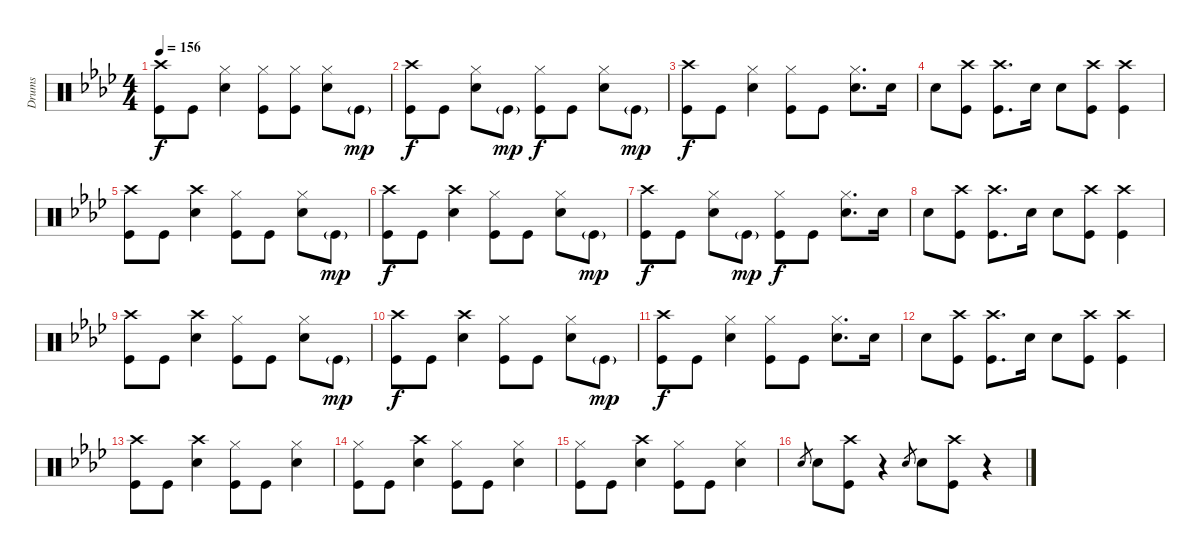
\track ("Drums" "Drums") {instrument percussion}
\staff {score}
\articulation defaults
\ts (4 4)
\tempo 156
\clef neutral
\ks ab
("Crash high (hit)" "Kick (hit)").8{dy f} "Kick (hit)".8 ("Hi-Hat (closed)" "Snare (hit) 2").4 ("Hi-Hat (closed)" "Kick (hit)").8 ("Hi-Hat (closed)" "Kick (hit)").8 ("Hi-Hat (closed)" "Snare (hit) 2").8 "Kick (hit)"{g}.8{dy mp} |
("Crash high (hit)" "Kick (hit)").8{dy f} "Kick (hit)".8 ("Hi-Hat (closed)" "Snare (hit) 2").8 "Kick (hit)"{g}.8{dy mp} ("Hi-Hat (closed)" "Kick (hit)").8{dy f} "Kick (hit)".8 ("Snare (hit) 2" "Hi-Hat (closed)").8 "Kick (hit)"{g}.8{dy mp} |
("Crash high (hit)" "Kick (hit)").8{dy f} "Kick (hit)".8 ("Hi-Hat (closed)" "Snare (hit) 2").4 ("Hi-Hat (closed)" "Kick (hit)").8 "Kick (hit)".8 ("Hi-Hat (closed)" "Snare (hit) 2").8{d} "Snare (hit) 2".16 |
"Snare (hit) 2".8 ("Crash high (hit)" "Kick (hit)").8 ("Crash high (hit)" "Kick (hit)").8{d} "Snare (hit) 2".16 "Snare (hit) 2".8 ("Crash high (hit)" "Kick (hit)").8 ("Crash high (hit)" "Kick (hit)").4 |
("Crash high (hit)" "Kick (hit)").8 "Kick (hit)".8 ("Crash high (hit)" "Snare (hit) 2").4 ("Kick (hit)" "Hi-Hat (closed)").8 "Kick (hit)".8 ("Hi-Hat (closed)" "Snare (hit) 2").8 "Kick (hit)"{g}.8{dy mp} |
("Crash high (hit)" "Kick (hit)").8{dy f} "Kick (hit)".8 ("Crash high (hit)" "Snare (hit) 2").4 ("Kick (hit)" "Hi-Hat (closed)").8 "Kick (hit)".8 ("Hi-Hat (closed)" "Snare (hit) 2").8 "Kick (hit)"{g}.8{dy mp} |
("Crash high (hit)" "Kick (hit)").8{dy f} "Kick (hit)".8 ("Snare (hit) 2" "Hi-Hat (closed)").8 "Kick (hit)"{g}.8{dy mp} ("Hi-Hat (closed)" "Kick (hit)").8{dy f} "Kick (hit)".8 ("Hi-Hat (closed)" "Snare (hit) 2").8{d} "Snare (hit) 2".16 |
"Snare (hit) 2".8 ("Kick (hit)" "Crash high (hit)").8 ("Crash high (hit)" "Kick (hit)").8{d} "Snare (hit) 2".16 "Snare (hit) 2".8 ("Crash high (hit)" "Kick (hit)").8 ("Kick (hit)" "Crash high (hit)").4 |
("Crash high (hit)" "Kick (hit)").8 "Kick (hit)".8 ("Crash high (hit)" "Snare (hit) 2").4 ("Kick (hit)" "Hi-Hat (closed)").8 "Kick (hit)".8 ("Hi-Hat (closed)" "Snare (hit) 2").8 "Kick (hit)"{g}.8{dy mp} |
("Crash high (hit)" "Kick (hit)").8{dy f} "Kick (hit)".8 ("Crash high (hit)" "Snare (hit) 2").4 ("Kick (hit)" "Hi-Hat (closed)").8 "Kick (hit)".8 ("Hi-Hat (closed)" "Snare (hit) 2").8 "Kick (hit)"{g}.8{dy mp} |
("Crash high (hit)" "Kick (hit)").8{dy f} "Kick (hit)".8 ("Hi-Hat (closed)" "Snare (hit) 2").4 ("Hi-Hat (closed)" "Kick (hit)").8 "Kick (hit)".8 ("Hi-Hat (closed)" "Snare (hit) 2").8{d} "Snare (hit) 2".16 |
"Snare (hit) 2".8 ("Kick (hit)" "Crash high (hit)").8 ("Crash high (hit)" "Kick (hit)").8{d} "Snare (hit) 2".16 "Snare (hit) 2".8 ("Crash high (hit)" "Kick (hit)").8 ("Kick (hit)" "Crash high (hit)").4 |
("Crash high (hit)" "Kick (hit)").8 "Kick (hit)".8 ("Crash high (hit)" "Snare (hit) 2").4 ("Kick (hit)" "Hi-Hat (closed)").8 "Kick (hit)".8 ("Hi-Hat (closed)" "Snare (hit) 2").4 |
("Hi-Hat (closed)" "Kick (hit)").8 "Kick (hit)".8 ("Crash high (hit)" "Snare (hit) 2").4 ("Kick (hit)" "Hi-Hat (closed)").8 "Kick (hit)".8 ("Hi-Hat (closed)" "Snare (hit) 2").4 |
("Hi-Hat (closed)" "Kick (hit)").8 "Kick (hit)".8 ("Crash high (hit)" "Snare (hit) 2").4 ("Kick (hit)" "Hi-Hat (closed)").8 "Kick (hit)".8 ("Hi-Hat (closed)" "Snare (hit) 2").4 |
"Snare (hit) 2".8{gr} "Snare (hit) 2".8 ("Crash high (hit)" "Kick (hit)").8 r.4 "Snare (hit) 2".8{gr} "Snare (hit) 2".8 ("Crash high (hit)" "Kick (hit)").8 r.4
